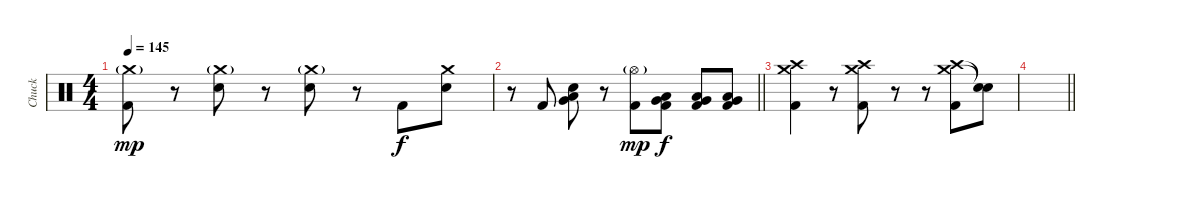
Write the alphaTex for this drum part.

\track ("Chuck" "Chuck") {instrument percussion}
\staff {score}
\articulation defaults
\ts (4 4)
\tempo 145
\clef neutral
\ks c
("Crash medium (hit)"{g} "Kick (hit) 2").8{dy mp} r.8 ("Crash medium (hit)"{g} "Snare (hit) 2").8 r.8 ("Crash medium (hit)"{g} "Snare (hit) 2").8 r.8 "Kick (hit) 2".8{dy f} ("Crash medium (hit)" "Snare (hit) 2").8 |
\barLineRight lightlight
r.8 "Kick (hit) 2".8 ("Very Low Tom (hit)" "Low Floor Tom (hit)" "Snare (hit) 2").8 r.8 ("Hi-Hat (open)"{g} "Kick (hit) 2").8{dy mp} ("Low Floor Tom (hit)" "Very Low Tom (hit)" "Kick (hit) 2").8{dy f} ("Low Floor Tom (hit)" "Very Low Tom (hit)" "Kick (hit) 2").8 ("Low Floor Tom (hit)" "Very Low Tom (hit)" "Kick (hit) 2").8 |
("Crash medium (hit)" "Crash high (hit)" "Kick (hit) 2").4 r.8 ("Crash medium (hit)" "Crash high (hit)" "Kick (hit) 2").8 r.8 r.8 ("Crash medium (hit)" "Crash high (hit)" "Kick (hit) 2").8 ("Snare (hit)"{t} "Snare (hit)"{t}).8 |
\barLineRight lightlight
